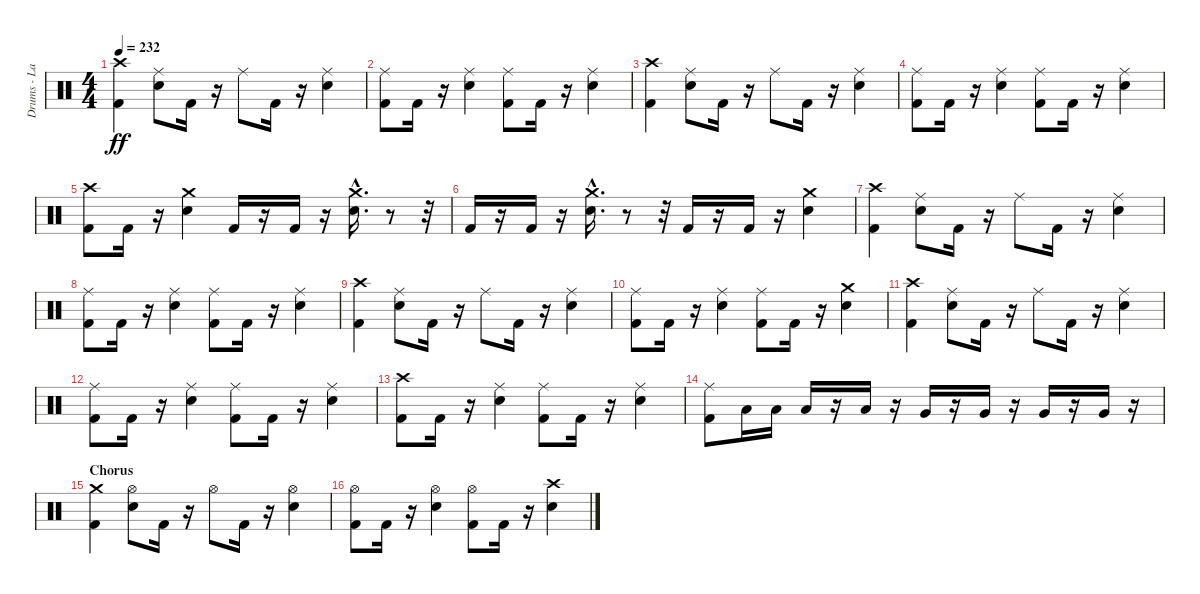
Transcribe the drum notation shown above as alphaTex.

\track ("Drums - Larzon" "Drums - La") {instrument percussion}
\staff {score}
\articulation defaults
\ts (4 4)
\tempo 232
\clef neutral
\ks c
("Crash high (hit)" "Kick (hit) 2").4{dy ff} ("Ride (middle)" "Electric Snare (hit)").8 "Kick (hit) 2".16 r.16 "Ride (middle)".8 "Kick (hit) 2".16 r.16 ("Ride (middle)" "Electric Snare (hit)").4 |
("Ride (middle)" "Kick (hit) 2").8 "Kick (hit) 2".16 r.16 ("Ride (middle)" "Electric Snare (hit)").4 ("Ride (middle)" "Kick (hit) 2").8 "Kick (hit) 2".16 r.16 ("Ride (middle)" "Electric Snare (hit)").4 |
("Crash high (hit)" "Kick (hit) 2").4 ("Ride (middle)" "Electric Snare (hit)").8 "Kick (hit) 2".16 r.16 "Ride (middle)".8 "Kick (hit) 2".16 r.16 ("Ride (middle)" "Electric Snare (hit)").4 |
("Ride (middle)" "Kick (hit) 2").8 "Kick (hit) 2".16 r.16 ("Ride (middle)" "Electric Snare (hit)").4 ("Ride (middle)" "Kick (hit) 2").8 "Kick (hit) 2".16 r.16 ("Ride (middle)" "Electric Snare (hit)").4 |
("Crash high (hit)" "Kick (hit) 2").8 "Kick (hit) 2".16 r.16 ("Crash medium (hit)" "Electric Snare (hit)").4 "Kick (hit) 2".16 r.16 "Kick (hit) 2".16 r.16 ("Crash medium (hit)"{hac} "Electric Snare (hit)").16{d} r.8 r.32 |
"Kick (hit) 2".16 r.16 "Kick (hit) 2".16 r.16 ("Crash medium (hit)"{hac} "Electric Snare (hit)").16{d} r.8 r.32 "Kick (hit) 2".16 r.16 "Kick (hit) 2".16 r.16 ("Crash medium (hit)" "Electric Snare (hit)").4 |
("Crash high (hit)" "Kick (hit) 2").4 ("Ride (middle)" "Electric Snare (hit)").8 "Kick (hit) 2".16 r.16 "Ride (middle)".8 "Kick (hit) 2".16 r.16 ("Ride (middle)" "Electric Snare (hit)").4 |
("Ride (middle)" "Kick (hit) 2").8 "Kick (hit) 2".16 r.16 ("Ride (middle)" "Electric Snare (hit)").4 ("Ride (middle)" "Kick (hit) 2").8 "Kick (hit) 2".16 r.16 ("Electric Snare (hit)" "Ride (middle)").4 |
("Crash high (hit)" "Kick (hit) 2").4 ("Ride (middle)" "Electric Snare (hit)").8 "Kick (hit) 2".16 r.16 "Ride (middle)".8 "Kick (hit) 2".16 r.16 ("Ride (middle)" "Electric Snare (hit)").4 |
("Ride (middle)" "Kick (hit) 2").8 "Kick (hit) 2".16 r.16 ("Ride (middle)" "Electric Snare (hit)").4 ("Ride (middle)" "Kick (hit) 2").8 "Kick (hit) 2".16 r.16 ("Electric Snare (hit)" "Crash medium (hit)").4 |
("Crash high (hit)" "Kick (hit) 2").4 ("Ride (middle)" "Electric Snare (hit)").8 "Kick (hit) 2".16 r.16 "Ride (middle)".8 "Kick (hit) 2".16 r.16 ("Ride (middle)" "Electric Snare (hit)").4 |
("Ride (middle)" "Kick (hit) 2").8 "Kick (hit) 2".16 r.16 ("Ride (middle)" "Electric Snare (hit)").4 ("Ride (middle)" "Kick (hit) 2").8 "Kick (hit) 2".16 r.16 ("Ride (middle)" "Electric Snare (hit)").4 |
("Crash high (hit)" "Kick (hit) 2").8 "Kick (hit) 2".16 r.16 ("Electric Snare (hit)" "Ride (middle)").4 ("Kick (hit) 2" "Ride (middle)").8 "Kick (hit) 2".16 r.16 ("Electric Snare (hit)" "Ride (middle)").4 |
("Kick (hit) 2" "Ride (middle)").8 "Low Tom (hit)".16 "Low Tom (hit)".16 "Low Tom (hit)".16 r.16 "Low Tom (hit)".16 r.16 "Very Low Tom (hit)".16 r.16 "Very Low Tom (hit)".16 r.16 "Very Low Tom (hit)".16 r.16 "Very Low Tom (hit)".16 r.16 |
\section ("" "Chorus")
("Kick (hit) 2" "Crash medium (hit)").4 ("Electric Snare (hit)" "Hi-Hat (open)").8 "Kick (hit) 2".16 r.16 "Hi-Hat (open)".8 "Kick (hit) 2".16 r.16 ("Electric Snare (hit)" "Hi-Hat (open)").4 |
("Kick (hit) 2" "Hi-Hat (open)").8 "Kick (hit) 2".16 r.16 ("Electric Snare (hit)" "Hi-Hat (open)").4 ("Kick (hit) 2" "Hi-Hat (open)").8 "Kick (hit) 2".16 r.16 ("Electric Snare (hit)" "Crash high (hit)").4
